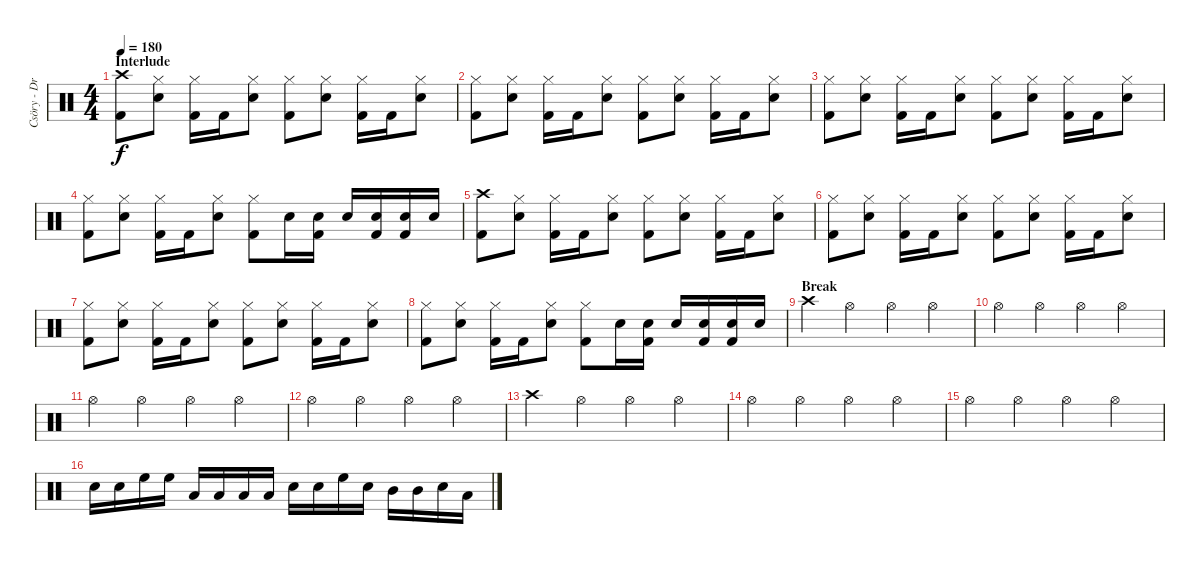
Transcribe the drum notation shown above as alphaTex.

\track ("Csöry - DrumZ" "Csöry - Dr") {instrument percussion}
\staff {score}
\articulation defaults
\ts (4 4)
\section ("" "Interlude")
\tempo 180
\clef neutral
\ks c
("Crash high (hit)" "Kick (hit) 2").8{dy f} ("Hi-Hat (closed)" "Snare (hit) 2").8 ("Hi-Hat (closed)" "Kick (hit) 2").16 "Kick (hit) 2".16 ("Hi-Hat (closed)" "Snare (hit) 2").8 ("Hi-Hat (closed)" "Kick (hit) 2").8 ("Hi-Hat (closed)" "Snare (hit) 2").8 ("Hi-Hat (closed)" "Kick (hit) 2").16 "Kick (hit) 2".16 ("Hi-Hat (closed)" "Snare (hit) 2").8 |
("Hi-Hat (closed)" "Kick (hit) 2").8 ("Hi-Hat (closed)" "Snare (hit) 2").8 ("Hi-Hat (closed)" "Kick (hit) 2").16 "Kick (hit) 2".16 ("Hi-Hat (closed)" "Snare (hit) 2").8 ("Hi-Hat (closed)" "Kick (hit) 2").8 ("Hi-Hat (closed)" "Snare (hit) 2").8 ("Hi-Hat (closed)" "Kick (hit) 2").16 "Kick (hit) 2".16 ("Hi-Hat (closed)" "Snare (hit) 2").8 |
("Hi-Hat (closed)" "Kick (hit) 2").8 ("Hi-Hat (closed)" "Snare (hit) 2").8 ("Hi-Hat (closed)" "Kick (hit) 2").16 "Kick (hit) 2".16 ("Hi-Hat (closed)" "Snare (hit) 2").8 ("Hi-Hat (closed)" "Kick (hit) 2").8 ("Hi-Hat (closed)" "Snare (hit) 2").8 ("Hi-Hat (closed)" "Kick (hit) 2").16 "Kick (hit) 2".16 ("Hi-Hat (closed)" "Snare (hit) 2").8 |
("Hi-Hat (closed)" "Kick (hit) 2").8 ("Hi-Hat (closed)" "Snare (hit) 2").8 ("Hi-Hat (closed)" "Kick (hit) 2").16 "Kick (hit) 2".16 ("Hi-Hat (closed)" "Snare (hit) 2").8 ("Hi-Hat (closed)" "Kick (hit) 2").8 "Snare (hit) 2".16 ("Snare (hit) 2" "Kick (hit) 2").16 "Snare (hit) 2".16 ("Snare (hit) 2" "Kick (hit) 2").16 ("Snare (hit) 2" "Kick (hit) 2").16 "Snare (hit) 2".16 |
("Crash high (hit)" "Kick (hit) 2").8 ("Hi-Hat (closed)" "Snare (hit) 2").8 ("Hi-Hat (closed)" "Kick (hit) 2").16 "Kick (hit) 2".16 ("Hi-Hat (closed)" "Snare (hit) 2").8 ("Hi-Hat (closed)" "Kick (hit) 2").8 ("Hi-Hat (closed)" "Snare (hit) 2").8 ("Hi-Hat (closed)" "Kick (hit) 2").16 "Kick (hit) 2".16 ("Hi-Hat (closed)" "Snare (hit) 2").8 |
("Hi-Hat (closed)" "Kick (hit) 2").8 ("Hi-Hat (closed)" "Snare (hit) 2").8 ("Hi-Hat (closed)" "Kick (hit) 2").16 "Kick (hit) 2".16 ("Hi-Hat (closed)" "Snare (hit) 2").8 ("Hi-Hat (closed)" "Kick (hit) 2").8 ("Hi-Hat (closed)" "Snare (hit) 2").8 ("Hi-Hat (closed)" "Kick (hit) 2").16 "Kick (hit) 2".16 ("Hi-Hat (closed)" "Snare (hit) 2").8 |
("Hi-Hat (closed)" "Kick (hit) 2").8 ("Hi-Hat (closed)" "Snare (hit) 2").8 ("Hi-Hat (closed)" "Kick (hit) 2").16 "Kick (hit) 2".16 ("Hi-Hat (closed)" "Snare (hit) 2").8 ("Hi-Hat (closed)" "Kick (hit) 2").8 ("Hi-Hat (closed)" "Snare (hit) 2").8 ("Hi-Hat (closed)" "Kick (hit) 2").16 "Kick (hit) 2".16 ("Hi-Hat (closed)" "Snare (hit) 2").8 |
("Hi-Hat (closed)" "Kick (hit) 2").8 ("Hi-Hat (closed)" "Snare (hit) 2").8 ("Hi-Hat (closed)" "Kick (hit) 2").16 "Kick (hit) 2".16 ("Hi-Hat (closed)" "Snare (hit) 2").8 ("Hi-Hat (closed)" "Kick (hit) 2").8 "Snare (hit) 2".16 ("Snare (hit) 2" "Kick (hit) 2").16 "Snare (hit) 2".16 ("Snare (hit) 2" "Kick (hit) 2").16 ("Snare (hit) 2" "Kick (hit) 2").16 "Snare (hit) 2".16 |
\section ("" "Break")
"Crash high (hit)".4 "Hi-Hat (open)".4 "Hi-Hat (open)".4 "Hi-Hat (open)".4 |
"Hi-Hat (open)".4 "Hi-Hat (open)".4 "Hi-Hat (open)".4 "Hi-Hat (open)".4 |
"Hi-Hat (open)".4 "Hi-Hat (open)".4 "Hi-Hat (open)".4 "Hi-Hat (open)".4 |
"Hi-Hat (open)".4 "Hi-Hat (open)".4 "Hi-Hat (open)".4 "Hi-Hat (open)".4 |
"Crash high (hit)".4 "Hi-Hat (open)".4 "Hi-Hat (open)".4 "Hi-Hat (open)".4 |
"Hi-Hat (open)".4 "Hi-Hat (open)".4 "Hi-Hat (open)".4 "Hi-Hat (open)".4 |
"Hi-Hat (open)".4 "Hi-Hat (open)".4 "Hi-Hat (open)".4 "Hi-Hat (open)".4 |
"Snare (hit) 2".16 "Snare (hit) 2".16 "High Floor Tom (hit)".16 "High Floor Tom (hit)".16 "Low Tom (hit)".16 "Low Tom (hit)".16 "Low Floor Tom (hit)".16 "Low Floor Tom (hit)".16 "Snare (hit) 2".16 "Snare (hit) 2".16 "High Floor Tom (hit)".16 "Snare (hit) 2".16 "Mid Tom (hit)".16 "Mid Tom (hit)".16 "Snare (hit) 2".16 "Low Tom (hit)".16
